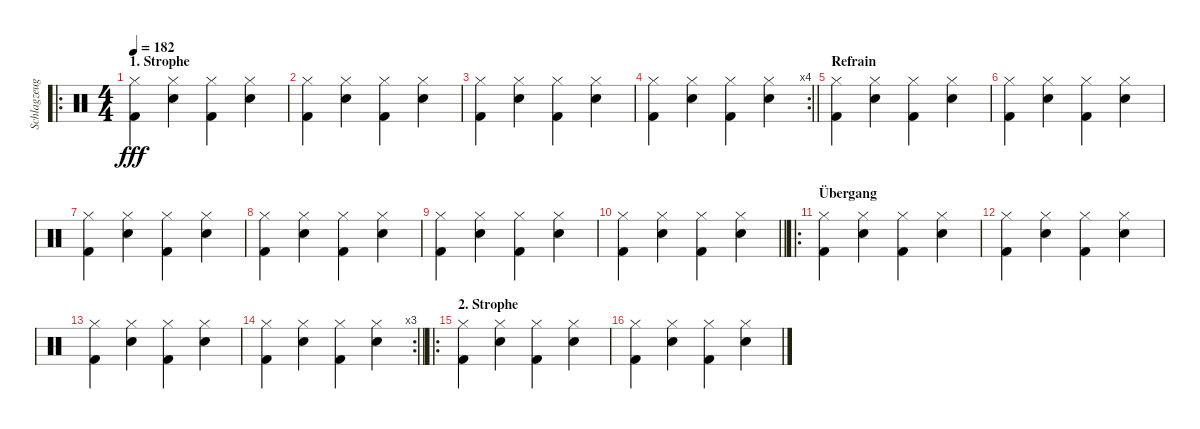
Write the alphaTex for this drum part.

\track ("Schlagzeug" "Schlagzeug") {instrument percussion}
\staff {score}
\articulation defaults
\ro
\ts (4 4)
\section ("" "1. Strophe ")
\tempo 182
\clef neutral
\ks c
("Hi-Hat (closed)" "Kick (hit) 2").4{dy fff} ("Hi-Hat (closed)" "Snare (hit) 2").4 ("Hi-Hat (closed)" "Kick (hit) 2").4 ("Hi-Hat (closed)" "Snare (hit) 2").4 |
("Hi-Hat (closed)" "Kick (hit) 2").4 ("Hi-Hat (closed)" "Snare (hit) 2").4 ("Hi-Hat (closed)" "Kick (hit) 2").4 ("Hi-Hat (closed)" "Snare (hit) 2").4 |
("Hi-Hat (closed)" "Kick (hit) 2").4 ("Hi-Hat (closed)" "Snare (hit) 2").4 ("Hi-Hat (closed)" "Kick (hit) 2").4 ("Hi-Hat (closed)" "Snare (hit) 2").4 |
\rc 4
\barLineRight lightlight
("Hi-Hat (closed)" "Kick (hit) 2").4 ("Hi-Hat (closed)" "Snare (hit) 2").4 ("Hi-Hat (closed)" "Kick (hit) 2").4 ("Hi-Hat (closed)" "Snare (hit) 2").4 |
\section ("" "Refrain")
("Hi-Hat (closed)" "Kick (hit) 2").4 ("Hi-Hat (closed)" "Snare (hit) 2").4 ("Hi-Hat (closed)" "Kick (hit) 2").4 ("Hi-Hat (closed)" "Snare (hit) 2").4 |
("Hi-Hat (closed)" "Kick (hit) 2").4 ("Hi-Hat (closed)" "Snare (hit) 2").4 ("Hi-Hat (closed)" "Kick (hit) 2").4 ("Hi-Hat (closed)" "Snare (hit) 2").4 |
("Hi-Hat (closed)" "Kick (hit) 2").4 ("Hi-Hat (closed)" "Snare (hit) 2").4 ("Hi-Hat (closed)" "Kick (hit) 2").4 ("Hi-Hat (closed)" "Snare (hit) 2").4 |
("Hi-Hat (closed)" "Kick (hit) 2").4 ("Hi-Hat (closed)" "Snare (hit) 2").4 ("Hi-Hat (closed)" "Kick (hit) 2").4 ("Hi-Hat (closed)" "Snare (hit) 2").4 |
("Hi-Hat (closed)" "Kick (hit) 2").4 ("Hi-Hat (closed)" "Snare (hit) 2").4 ("Hi-Hat (closed)" "Kick (hit) 2").4 ("Hi-Hat (closed)" "Snare (hit) 2").4 |
\barLineRight lightlight
("Hi-Hat (closed)" "Kick (hit) 2").4 ("Hi-Hat (closed)" "Snare (hit) 2").4 ("Hi-Hat (closed)" "Kick (hit) 2").4 ("Hi-Hat (closed)" "Snare (hit) 2").4 |
\ro
\section ("" "Übergang")
("Hi-Hat (closed)" "Kick (hit) 2").4 ("Hi-Hat (closed)" "Snare (hit) 2").4 ("Hi-Hat (closed)" "Kick (hit) 2").4 ("Hi-Hat (closed)" "Snare (hit) 2").4 |
("Hi-Hat (closed)" "Kick (hit) 2").4 ("Hi-Hat (closed)" "Snare (hit) 2").4 ("Hi-Hat (closed)" "Kick (hit) 2").4 ("Hi-Hat (closed)" "Snare (hit) 2").4 |
("Hi-Hat (closed)" "Kick (hit) 2").4 ("Hi-Hat (closed)" "Snare (hit) 2").4 ("Hi-Hat (closed)" "Kick (hit) 2").4 ("Hi-Hat (closed)" "Snare (hit) 2").4 |
\rc 3
\barLineRight lightlight
("Hi-Hat (closed)" "Kick (hit) 2").4 ("Hi-Hat (closed)" "Snare (hit) 2").4 ("Hi-Hat (closed)" "Kick (hit) 2").4 ("Hi-Hat (closed)" "Snare (hit) 2").4 |
\ro
\section ("" "2. Strophe")
("Hi-Hat (closed)" "Kick (hit) 2").4 ("Hi-Hat (closed)" "Snare (hit) 2").4 ("Hi-Hat (closed)" "Kick (hit) 2").4 ("Hi-Hat (closed)" "Snare (hit) 2").4 |
("Hi-Hat (closed)" "Kick (hit) 2").4 ("Hi-Hat (closed)" "Snare (hit) 2").4 ("Hi-Hat (closed)" "Kick (hit) 2").4 ("Hi-Hat (closed)" "Snare (hit) 2").4
